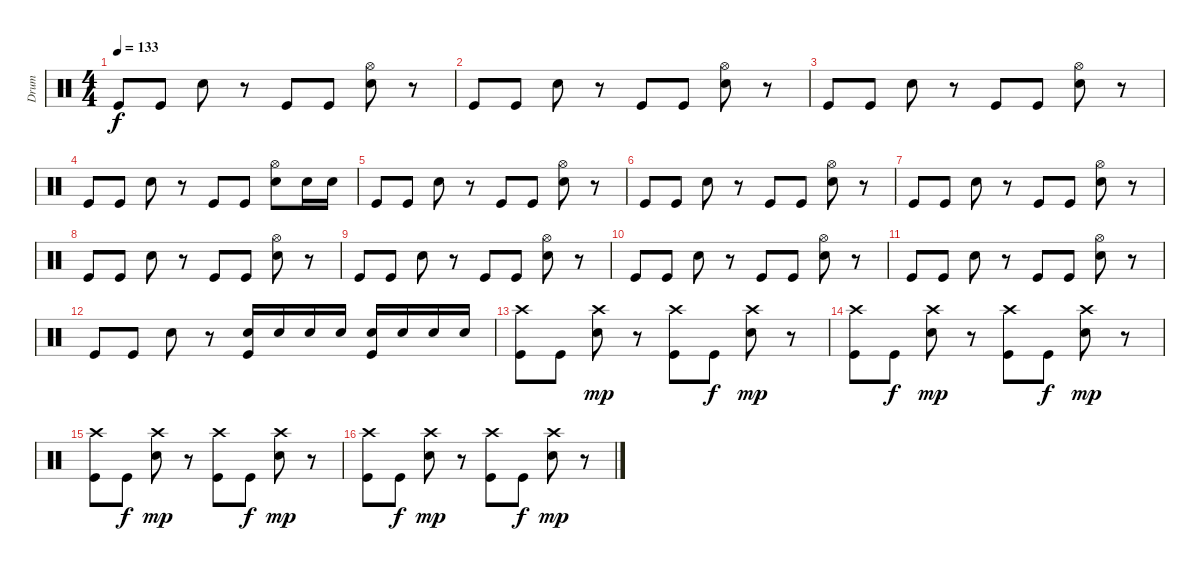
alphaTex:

\track ("Drum" "Drum") {instrument percussion}
\staff {score}
\articulation defaults
\ts (4 4)
\tempo 133
\clef neutral
\ks c "Kick (hit)".8{dy f} "Kick (hit)".8 "Snare (hit) 2".8
r.8 "Kick (hit)".8 "Kick (hit)".8 ("Hi-Hat (open)" "Snare (hit) 2").8 r.8 |
"Kick (hit)".8 "Kick (hit)".8 "Snare (hit) 2".8 r.8 "Kick (hit)".8 "Kick (hit)".8 ("Hi-Hat (open)" "Snare (hit) 2").8 r.8 |
"Kick (hit)".8 "Kick (hit)".8 "Snare (hit) 2".8 r.8 "Kick (hit)".8 "Kick (hit)".8 ("Hi-Hat (open)" "Snare (hit) 2").8 r.8 |
"Kick (hit)".8 "Kick (hit)".8 "Snare (hit) 2".8 r.8 "Kick (hit)".8 "Kick (hit)".8 ("Hi-Hat (open)" "Snare (hit) 2").8 "Snare (hit) 2".16 "Snare (hit) 2".16 |
"Kick (hit)".8 "Kick (hit)".8 "Snare (hit) 2".8 r.8 "Kick (hit)".8 "Kick (hit)".8 ("Hi-Hat (open)" "Snare (hit) 2").8 r.8 |
"Kick (hit)".8 "Kick (hit)".8 "Snare (hit) 2".8 r.8 "Kick (hit)".8 "Kick (hit)".8 ("Hi-Hat (open)" "Snare (hit) 2").8 r.8 |
"Kick (hit)".8 "Kick (hit)".8 "Snare (hit) 2".8 r.8 "Kick (hit)".8 "Kick (hit)".8 ("Hi-Hat (open)" "Snare (hit) 2").8 r.8 |
"Kick (hit)".8 "Kick (hit)".8 "Snare (hit) 2".8 r.8 "Kick (hit)".8 "Kick (hit)".8 ("Hi-Hat (open)" "Snare (hit) 2").8 r.8 |
"Kick (hit)".8 "Kick (hit)".8 "Snare (hit) 2".8 r.8 "Kick (hit)".8 "Kick (hit)".8 ("Hi-Hat (open)" "Snare (hit) 2").8 r.8 |
"Kick (hit)".8 "Kick (hit)".8 "Snare (hit) 2".8 r.8 "Kick (hit)".8 "Kick (hit)".8 ("Hi-Hat (open)" "Snare (hit) 2").8 r.8 |
"Kick (hit)".8 "Kick (hit)".8 "Snare (hit) 2".8 r.8 "Kick (hit)".8 "Kick (hit)".8 ("Hi-Hat (open)" "Snare (hit) 2").8 r.8 |
"Kick (hit)".8 "Kick (hit)".8 "Snare (hit) 2".8 r.8 ("Snare (hit) 2" "Kick (hit)").16 "Snare (hit) 2".16 "Snare (hit) 2".16 "Snare (hit) 2".16 ("Snare (hit) 2" "Kick (hit)").16 "Snare (hit) 2".16 "Snare (hit) 2".16 "Snare (hit) 2".16 |
("Crash high (hit)" "Kick (hit)").8 "Kick (hit)".8 ("Crash high (hit)" "Snare (hit) 2").8{dy mp} r.8 ("Crash high (hit)" "Kick (hit)").8 "Kick (hit)".8{dy f} ("Crash high (hit)" "Snare (hit) 2").8{dy mp} r.8 |
("Crash high (hit)" "Kick (hit)").8 "Kick (hit)".8{dy f} ("Crash high (hit)" "Snare (hit) 2").8{dy mp} r.8 ("Crash high (hit)" "Kick (hit)").8 "Kick (hit)".8{dy f} ("Crash high (hit)" "Snare (hit) 2").8{dy mp} r.8 |
("Crash high (hit)" "Kick (hit)").8 "Kick (hit)".8{dy f} ("Crash high (hit)" "Snare (hit) 2").8{dy mp} r.8 ("Crash high (hit)" "Kick (hit)").8 "Kick (hit)".8{dy f} ("Crash high (hit)" "Snare (hit) 2").8{dy mp} r.8 |
("Crash high (hit)" "Kick (hit)").8 "Kick (hit)".8{dy f} ("Crash high (hit)" "Snare (hit) 2").8{dy mp} r.8 ("Crash high (hit)" "Kick (hit)").8 "Kick (hit)".8{dy f} ("Crash high (hit)" "Snare (hit) 2").8{dy mp} r.8
